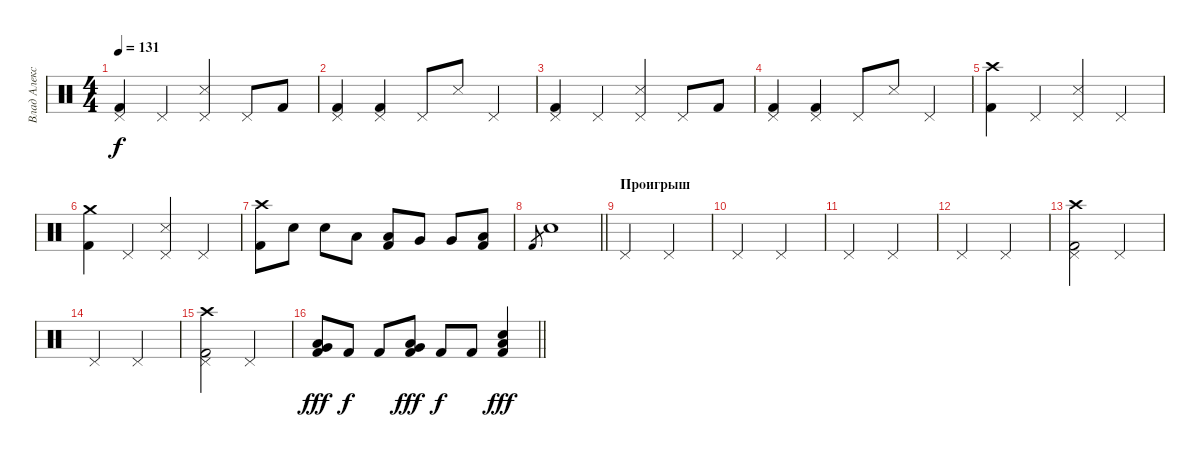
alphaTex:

\track ("Влад Алексеенко" "Влад Алекс") {instrument percussion}
\staff {score}
\articulation defaults
\ts (4 4)
\tempo 131
\clef neutral
\ks c
("Pedal Hi-Hat (hit)" "Kick (hit) 2").4{dy f} "Pedal Hi-Hat (hit)".4 ("Pedal Hi-Hat (hit)" "Metronome (hit)").4 "Pedal Hi-Hat (hit)".8 "Kick (hit) 2".8 |
("Pedal Hi-Hat (hit)" "Kick (hit) 2").4 ("Pedal Hi-Hat (hit)" "Kick (hit) 2").4 "Pedal Hi-Hat (hit)".8 "Metronome (hit)".8 "Pedal Hi-Hat (hit)".4 |
("Pedal Hi-Hat (hit)" "Kick (hit) 2").4 "Pedal Hi-Hat (hit)".4 ("Pedal Hi-Hat (hit)" "Metronome (hit)").4 "Pedal Hi-Hat (hit)".8 "Kick (hit) 2".8 |
("Pedal Hi-Hat (hit)" "Kick (hit) 2").4 ("Pedal Hi-Hat (hit)" "Kick (hit) 2").4 "Pedal Hi-Hat (hit)".8 "Metronome (hit)".8 "Pedal Hi-Hat (hit)".4 |
("Crash high (hit)" "Kick (hit) 2").4 "Pedal Hi-Hat (hit)".4 ("Pedal Hi-Hat (hit)" "Metronome (hit)").4 "Pedal Hi-Hat (hit)".4 |
("Crash medium (hit)" "Kick (hit) 2").4 "Pedal Hi-Hat (hit)".4 ("Pedal Hi-Hat (hit)" "Metronome (hit)").4 "Pedal Hi-Hat (hit)".4 |
("Crash high (hit)" "Kick (hit) 2").8 "Electric Snare (hit)".8 "Electric Snare (hit)".8 "Low Tom (hit)".8 ("Low Tom (hit)" "Kick (hit) 2").8 "Very Low Tom (hit)".8 "Very Low Tom (hit)".8 ("Low Floor Tom (hit)" "Kick (hit) 2").8 |
\barLineRight lightlight "Kick (hit) 2".8{gr} "Electric Snare (hit)".1
|
\section ("" "Проигрыш")
"Pedal Hi-Hat (hit)".2 "Pedal Hi-Hat (hit)".2 |
"Pedal Hi-Hat (hit)".2 "Pedal Hi-Hat (hit)".2 |
"Pedal Hi-Hat (hit)".2 "Pedal Hi-Hat (hit)".2 |
"Pedal Hi-Hat (hit)".2 "Pedal Hi-Hat (hit)".2 |
("Pedal Hi-Hat (hit)" "Crash high (hit)" "Kick (hit) 2").2 "Pedal Hi-Hat (hit)".2 |
"Pedal Hi-Hat (hit)".2 "Pedal Hi-Hat (hit)".2 |
("Pedal Hi-Hat (hit)" "Crash high (hit)" "Kick (hit) 2").2 "Pedal Hi-Hat (hit)".2 |
\barLineRight lightlight
("Low Tom (hit)" "Kick (hit) 2" "Very Low Tom (hit)").8{dy fff} "Kick (hit) 2".8{dy f} "Kick (hit) 2".8 ("Low Tom (hit)" "Kick (hit) 2" "Very Low Tom (hit)").8{dy fff} "Kick (hit) 2".8{dy f} "Kick (hit) 2".8 ("Low Tom (hit)" "Kick (hit) 2" "Electric Snare (hit)").4{dy fff}
